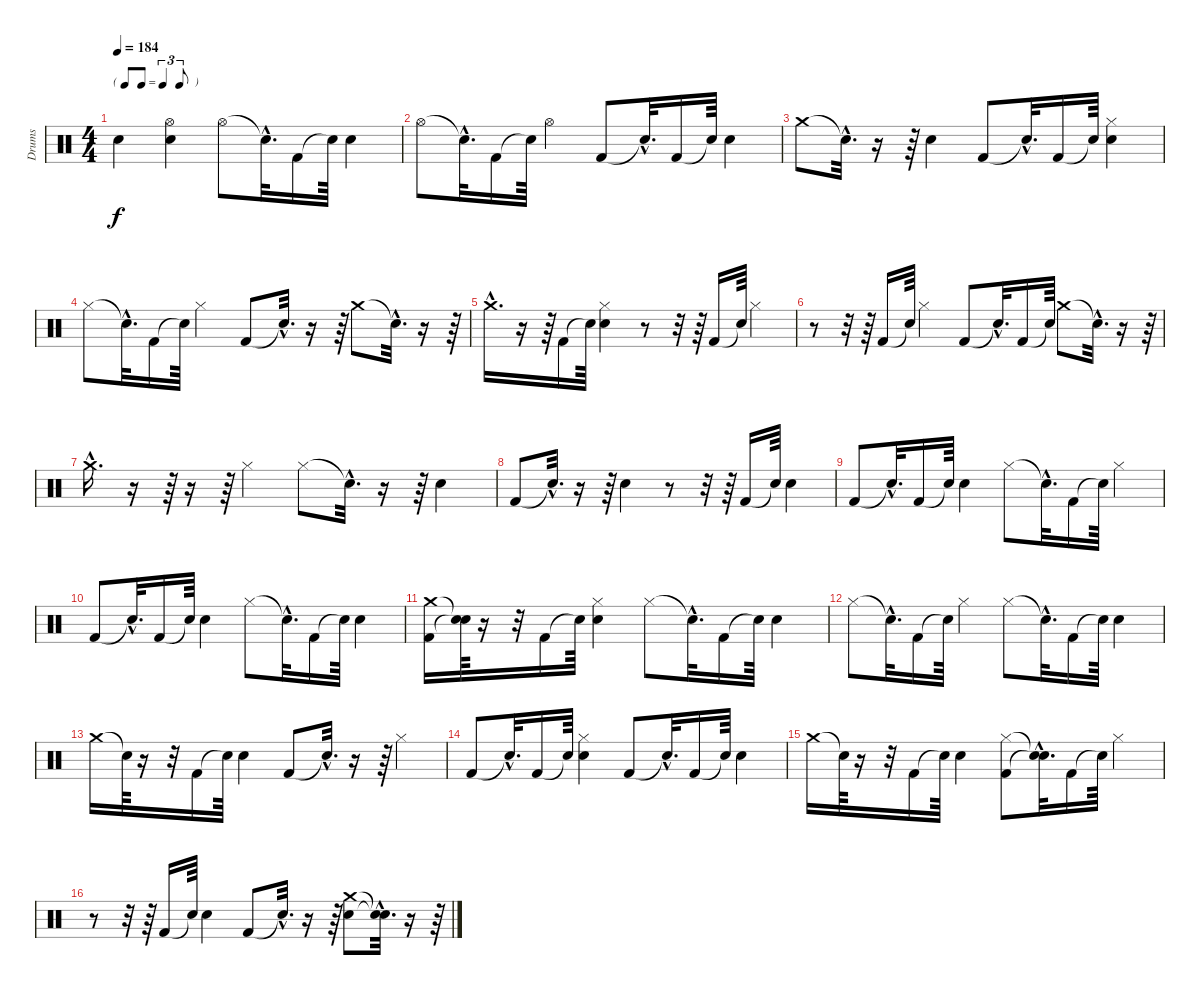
\track ("Drums" "Drums") {instrument percussion}
\staff {score}
\articulation defaults
\ts (4 4)
\tf triplet8th
\tempo 184
\clef neutral
\ks c "Snare (hit)"{t}.4{dy f}
("Hi-Hat (open)" "Snare (hit) 2").4 "Hi-Hat (open)".8 "Snare (hit)"{hac t}.32{d} "Kick (hit) 2".16 "Snare (hit)"{t}.64 "Snare (hit) 2".4 |
"Hi-Hat (open)".8 "Snare (hit)"{hac t}.32{d} "Kick (hit) 2".16 "Snare (hit)"{t}.64 "Hi-Hat (open)".4 "Kick (hit) 2".8 "Snare (hit)"{hac t}.32{d} "Kick (hit) 2".16 "Snare (hit)"{t}.64 "Snare (hit) 2".4 |
"Crash medium (hit)".8 "Snare (hit)"{hac t}.32{d} r.16 r.64 "Snare (hit) 2".4 "Kick (hit) 2".8 "Snare (hit)"{hac t}.32{d} "Kick (hit) 2".16 "Snare (hit)"{t}.64 ("Hi-Hat (closed)" "Snare (hit) 2").4 |
"Hi-Hat (closed)".8 "Snare (hit)"{hac t}.32{d} "Kick (hit) 2".16 "Snare (hit)"{t}.64 "Hi-Hat (closed)".4 "Kick (hit) 2".8 "Snare (hit)"{hac t}.32{d} r.16 r.64 "Crash medium (hit)".8 "Snare (hit)"{hac t}.32{d} r.16 r.64 |
"Crash medium (hit)"{hac}.16{d} r.16 r.64 "Kick (hit) 2".16 "Snare (hit)"{t}.64 ("Hi-Hat (closed)" "Snare (hit) 2").4 r.8 r.32 r.64 "Kick (hit) 2".16 "Snare (hit)"{t}.64 "Hi-Hat (closed)".4 |
r.8 r.32 r.64 "Kick (hit) 2".16 "Snare (hit)"{t}.64 "Hi-Hat (closed)".4 "Kick (hit) 2".8 "Snare (hit)"{hac t}.32{d} "Kick (hit) 2".16 "Snare (hit)"{t}.64 "Crash medium (hit)".8 "Snare (hit)"{hac t}.32{d} r.16 r.64 |
"Crash medium (hit)"{hac}.16{d} r.16 r.64 r.16 r.64 "Hi-Hat (closed)".4 "Hi-Hat (closed)".8 "Snare (hit)"{hac t}.32{d} r.16 r.64 "Snare (hit) 2".4 |
"Kick (hit) 2".8 "Snare (hit)"{hac t}.32{d} r.16 r.64 "Snare (hit) 2".4 r.8 r.32 r.64 "Kick (hit) 2".16 "Snare (hit)"{t}.64 "Snare (hit) 2".4 |
"Kick (hit) 2".8 "Snare (hit)"{hac t}.32{d} "Kick (hit) 2".16 "Snare (hit)"{t}.64 "Snare (hit) 2".4 "Hi-Hat (closed)".8 "Snare (hit)"{hac t}.32{d} "Kick (hit) 2".16 "Snare (hit)"{t}.64 "Hi-Hat (closed)".4 |
"Kick (hit) 2".8 "Snare (hit)"{hac t}.32{d} "Kick (hit) 2".16 "Snare (hit)"{t}.64 "Snare (hit) 2".4 "Hi-Hat (closed)".8 "Snare (hit)"{hac t}.32{d} "Kick (hit) 2".16 "Snare (hit)"{t}.64 "Snare (hit) 2".4 |
("Crash medium (hit)" "Kick (hit) 2").16 ("Snare (hit)"{t} "Snare (hit)"{t}).64 r.16 r.32 "Kick (hit) 2".16 "Snare (hit)"{t}.64 ("Hi-Hat (closed)" "Snare (hit) 2").4 "Hi-Hat (closed)".8 "Snare (hit)"{hac t}.32{d} "Kick (hit) 2".16 "Snare (hit)"{t}.64 "Snare (hit) 2".4 |
"Hi-Hat (closed)".8 "Snare (hit)"{hac t}.32{d} "Kick (hit) 2".16 "Snare (hit)"{t}.64 "Hi-Hat (closed)".4 "Hi-Hat (closed)".8 "Snare (hit)"{hac t}.32{d} "Kick (hit) 2".16 "Snare (hit)"{t}.64 "Snare (hit) 2".4 |
"Crash medium (hit)".16 "Snare (hit)"{t}.64 r.16 r.32 "Kick (hit) 2".16 "Snare (hit)"{t}.64 "Snare (hit) 2".4 "Kick (hit) 2".8 "Snare (hit)"{hac t}.32{d} r.16 r.64 "Hi-Hat (closed)".4 |
"Kick (hit) 2".8 "Snare (hit)"{hac t}.32{d} "Kick (hit) 2".16 "Snare (hit)"{t}.64 ("Hi-Hat (closed)" "Snare (hit) 2").4 "Kick (hit) 2".8 "Snare (hit)"{hac t}.32{d} "Kick (hit) 2".16 "Snare (hit)"{t}.64 "Snare (hit) 2".4 |
"Crash medium (hit)".16 "Snare (hit)"{t}.64 r.16 r.32 "Kick (hit) 2".16 "Snare (hit)"{t}.64 "Snare (hit) 2".4 ("Hi-Hat (closed)" "Kick (hit) 2").8 ("Snare (hit)"{hac t} "Snare (hit)"{hac t}).32{d} "Kick (hit) 2".16 "Snare (hit)"{t}.64 "Hi-Hat (closed)".4 |
r.8 r.32 r.64 "Kick (hit) 2".16 "Snare (hit)"{t}.64 "Snare (hit) 2".4 "Kick (hit) 2".8 "Snare (hit)"{hac t}.32{d} r.16 r.64 ("Crash medium (hit)" "Snare (hit) 2").8 ("Snare (hit)"{hac t} "Snare (hit)"{hac t}).32{d} r.16 r.64
